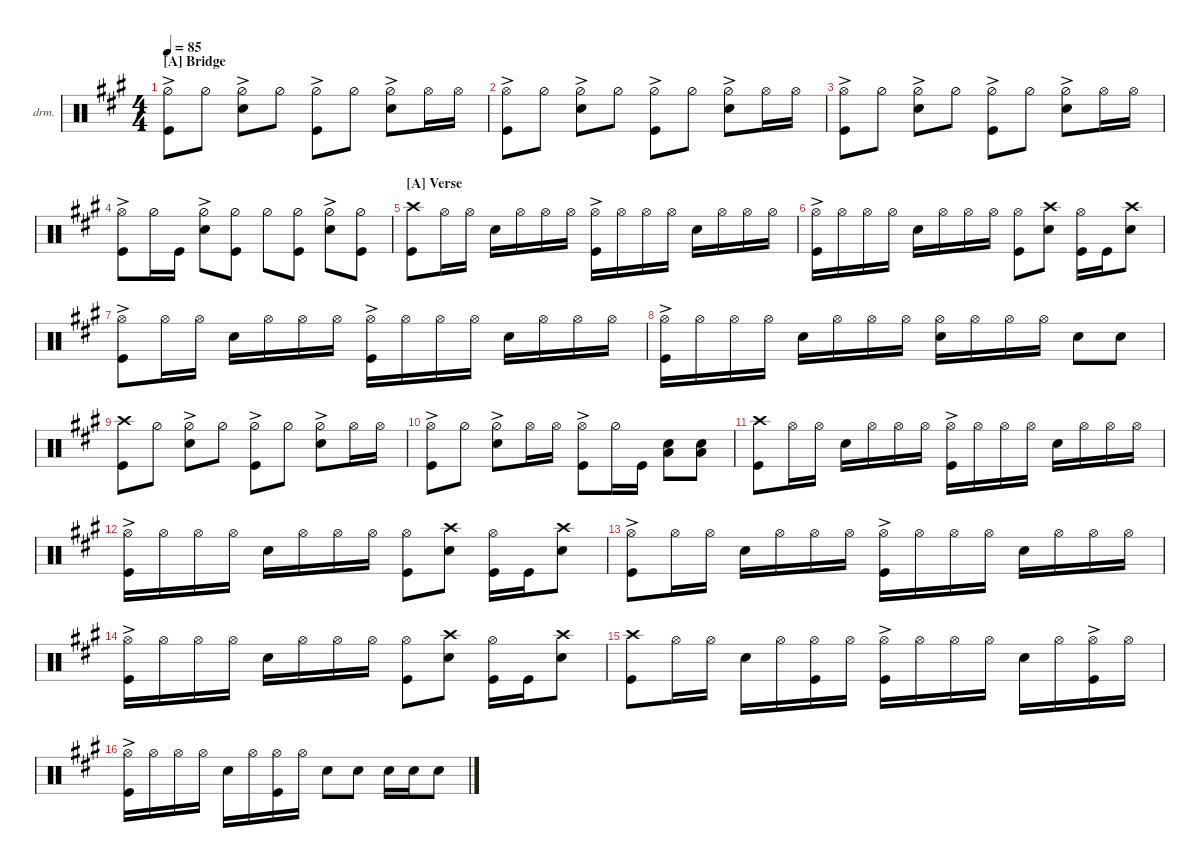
\defaultSystemsLayout 4
\hideDynamics
\bracketExtendMode nobrackets
\firstSystemTrackNameOrientation horizontal
\otherSystemsTrackNameOrientation horizontal
\track ("Drums" "drm.") {instrument percussion}
\staff {score}
\articulation defaults
\ts (4 4)
\section ("A" "Bridge")
\tempo 85
\clef neutral
\ks a
("Kick (hit)"{acc forcenatural} "Hi-Hat (half)"{ac acc forcenatural}).8{dy mf beam Down} "Hi-Hat (half)"{acc forcenatural}.8{beam Down} ("Snare (hit) 2"{acc forcenatural} "Hi-Hat (half)"{ac acc forcenatural}).8{beam Down} "Hi-Hat (half)"{acc forcenatural}.8{beam Down} ("Hi-Hat (half)"{ac acc forcenatural} "Kick (hit)"{acc forcenatural}).8{beam Down} "Hi-Hat (half)"{acc forcenatural}.8{beam Down} ("Snare (hit) 2"{acc forcenatural} "Hi-Hat (half)"{ac acc forcenatural}).8{beam Down} "Hi-Hat (open)"{acc forcenatural}.16{beam Down} "Hi-Hat (open)"{acc forcenatural}.16{beam Down} |
("Kick (hit)"{acc forcenatural} "Hi-Hat (open)"{ac acc forcenatural}).8{beam Down} "Hi-Hat (half)"{acc forcenatural}.8{beam Down} ("Snare (hit) 2"{acc forcenatural} "Hi-Hat (half)"{ac acc forcenatural}).8{beam Down} "Hi-Hat (half)"{acc forcenatural}.8{beam Down} ("Hi-Hat (half)"{ac acc forcenatural} "Kick (hit)"{acc forcenatural}).8{beam Down} "Hi-Hat (half)"{acc forcenatural}.8{beam Down} ("Snare (hit) 2"{acc forcenatural} "Hi-Hat (half)"{ac acc forcenatural}).8{beam Down} "Hi-Hat (open)"{acc forcenatural}.16{beam Down} "Hi-Hat (open)"{acc forcenatural}.16{beam Down} |
("Kick (hit)"{acc forcenatural} "Hi-Hat (open)"{ac acc forcenatural}).8{beam Down} "Hi-Hat (half)"{acc forcenatural}.8{beam Down} ("Snare (hit) 2"{acc forcenatural} "Hi-Hat (half)"{ac acc forcenatural}).8{beam Down} "Hi-Hat (half)"{acc forcenatural}.8{beam Down} ("Hi-Hat (half)"{ac acc forcenatural} "Kick (hit)"{acc forcenatural}).8{beam Down} "Hi-Hat (half)"{acc forcenatural}.8{beam Down} ("Snare (hit) 2"{acc forcenatural} "Hi-Hat (half)"{ac acc forcenatural}).8{beam Down} "Hi-Hat (open)"{acc forcenatural}.16{beam Down} "Hi-Hat (open)"{acc forcenatural}.16{beam Down} |
("Kick (hit)"{acc forcenatural} "Hi-Hat (open)"{ac acc forcenatural}).8{beam Down} "Hi-Hat (half)"{acc forcenatural}.16{beam Down} "Kick (hit)"{acc forcenatural}.16{beam Down} ("Hi-Hat (half)"{ac acc forcenatural} "Snare (hit) 2"{acc forcenatural}).8{beam Down} ("Kick (hit)"{acc forcenatural} "Hi-Hat (half)"{acc forcenatural}).8{beam Down} "Hi-Hat (half)"{acc forcenatural}.8{beam Down} ("Kick (hit)"{acc forcenatural} "Hi-Hat (half)"{acc forcenatural}).8{beam Down} ("Snare (hit) 2"{acc forcenatural} "Hi-Hat (half)"{ac acc forcenatural}).8{beam Down} ("Hi-Hat (half)"{acc forcenatural} "Kick (hit)"{acc forcenatural}).8{beam Down} |
\section ("A" "Verse")
("Kick (hit)"{acc forcenatural} "Crash high (hit)"{acc forcenatural}).8{beam Down} "Hi-Hat (open)"{acc forcenatural}.16{beam Down} "Hi-Hat (open)"{acc forcenatural}.16{beam Down} "Snare (hit) 2"{acc forcenatural}.16{beam Down} "Hi-Hat (open)"{acc forcenatural}.16{beam Down} "Hi-Hat (open)"{acc forcenatural}.16{beam Down} "Hi-Hat (open)"{acc forcenatural}.16{beam Down} ("Hi-Hat (open)"{ac acc forcenatural} "Kick (hit)"{acc forcenatural}).16{beam Down} "Hi-Hat (open)"{acc forcenatural}.16{beam Down} "Hi-Hat (open)"{acc forcenatural}.16{beam Down} "Hi-Hat (open)"{acc forcenatural}.16{beam Down} "Snare (hit) 2"{acc forcenatural}.16{beam Down} "Hi-Hat (open)"{acc forcenatural}.16{beam Down} "Hi-Hat (open)"{acc forcenatural}.16{beam Down} "Hi-Hat (open)"{acc forcenatural}.16{beam Down} |
("Kick (hit)"{acc forcenatural} "Hi-Hat (open)"{ac acc forcenatural}).16{beam Down} "Hi-Hat (open)"{acc forcenatural}.16{beam Down} "Hi-Hat (open)"{acc forcenatural}.16{beam Down} "Hi-Hat (open)"{acc forcenatural}.16{beam Down} "Snare (hit) 2"{acc forcenatural}.16{beam Down} "Hi-Hat (open)"{acc forcenatural}.16{beam Down} "Hi-Hat (open)"{acc forcenatural}.16{beam Down} "Hi-Hat (open)"{acc forcenatural}.16{beam Down} ("Hi-Hat (open)"{acc forcenatural} "Kick (hit)"{acc forcenatural}).8{beam Down} ("Snare (hit) 2"{acc forcenatural} "Crash high (hit)"{acc forcenatural}).8{beam Down} ("Kick (hit)"{acc forcenatural} "Hi-Hat (open)"{acc forcenatural}).16{beam Down} "Kick (hit)"{acc forcenatural}.16{beam Down} ("Snare (hit) 2"{acc forcenatural} "Crash high (hit)"{acc forcenatural}).8{beam Down} |
("Kick (hit)"{acc forcenatural} "Hi-Hat (open)"{ac acc forcenatural}).8{beam Down} "Hi-Hat (open)"{acc forcenatural}.16{beam Down} "Hi-Hat (open)"{acc forcenatural}.16{beam Down} "Snare (hit) 2"{acc forcenatural}.16{beam Down} "Hi-Hat (open)"{acc forcenatural}.16{beam Down} "Hi-Hat (open)"{acc forcenatural}.16{beam Down} "Hi-Hat (open)"{acc forcenatural}.16{beam Down} ("Hi-Hat (open)"{ac acc forcenatural} "Kick (hit)"{acc forcenatural}).16{beam Down} "Hi-Hat (open)"{acc forcenatural}.16{beam Down} "Hi-Hat (open)"{acc forcenatural}.16{beam Down} "Hi-Hat (open)"{acc forcenatural}.16{beam Down} "Snare (hit) 2"{acc forcenatural}.16{beam Down} "Hi-Hat (open)"{acc forcenatural}.16{beam Down} "Hi-Hat (open)"{acc forcenatural}.16{beam Down} "Hi-Hat (open)"{acc forcenatural}.16{beam Down} |
("Kick (hit)"{acc forcenatural} "Hi-Hat (open)"{ac acc forcenatural}).16{beam Down} "Hi-Hat (open)"{acc forcenatural}.16{beam Down} "Hi-Hat (open)"{acc forcenatural}.16{beam Down} "Hi-Hat (open)"{acc forcenatural}.16{beam Down} "Snare (hit) 2"{acc forcenatural}.16{beam Down} "Hi-Hat (open)"{acc forcenatural}.16{beam Down} "Hi-Hat (open)"{acc forcenatural}.16{beam Down} "Hi-Hat (open)"{acc forcenatural}.16{beam Down} ("Hi-Hat (open)"{acc forcenatural} "Snare (hit) 2"{acc forcenatural}).16{beam Down} "Hi-Hat (open)"{acc forcenatural}.16{beam Down} "Hi-Hat (open)"{acc forcenatural}.16{beam Down} "Hi-Hat (open)"{acc forcenatural}.16{beam Down} "Snare (hit) 2"{acc forcenatural}.8{beam Down} "Snare (hit) 2"{acc forcenatural}.8{beam Down} |
("Kick (hit)"{acc forcenatural} "Crash high (hit)"{acc forcenatural}).8{beam Down} "Hi-Hat (half)"{acc forcenatural}.8{beam Down} ("Snare (hit) 2"{acc forcenatural} "Hi-Hat (half)"{ac acc forcenatural}).8{beam Down} "Hi-Hat (half)"{acc forcenatural}.8{beam Down} ("Hi-Hat (half)"{ac acc forcenatural} "Kick (hit)"{acc forcenatural}).8{beam Down} "Hi-Hat (half)"{acc forcenatural}.8{beam Down} ("Snare (hit) 2"{acc forcenatural} "Hi-Hat (half)"{ac acc forcenatural}).8{beam Down} "Hi-Hat (open)"{acc forcenatural}.16{beam Down} "Hi-Hat (open)"{acc forcenatural}.16{beam Down} |
("Kick (hit)"{acc forcenatural} "Hi-Hat (open)"{ac acc forcenatural}).8{beam Down} "Hi-Hat (half)"{acc forcenatural}.8{beam Down} ("Snare (hit) 2"{acc forcenatural} "Hi-Hat (half)"{ac acc forcenatural}).8{beam Down} "Hi-Hat (open)"{acc forcenatural}.16{beam Down} "Hi-Hat (open)"{acc forcenatural}.16{beam Down} ("Hi-Hat (open)"{ac acc forcenatural} "Kick (hit)"{acc forcenatural}).8{beam Down} "Hi-Hat (half)"{acc forcenatural}.16{beam Down} "Kick (hit)"{acc forcenatural}.16{beam Down} ("Snare (hit) 2"{acc forcenatural} "Low Tom (hit)"{acc forcenatural}).8{beam Down} ("Snare (hit) 2"{acc forcenatural} "Low Tom (hit)"{acc forcenatural}).8{beam Down} |
("Kick (hit)"{acc forcenatural} "Crash high (hit)"{acc forcenatural}).8{beam Down} "Hi-Hat (open)"{acc forcenatural}.16{beam Down} "Hi-Hat (open)"{acc forcenatural}.16{beam Down} "Snare (hit) 2"{acc forcenatural}.16{beam Down} "Hi-Hat (open)"{acc forcenatural}.16{beam Down} "Hi-Hat (open)"{acc forcenatural}.16{beam Down} "Hi-Hat (open)"{acc forcenatural}.16{beam Down} ("Hi-Hat (open)"{ac acc forcenatural} "Kick (hit)"{acc forcenatural}).16{beam Down} "Hi-Hat (open)"{acc forcenatural}.16{beam Down} "Hi-Hat (open)"{acc forcenatural}.16{beam Down} "Hi-Hat (open)"{acc forcenatural}.16{beam Down} "Snare (hit) 2"{acc forcenatural}.16{beam Down} "Hi-Hat (open)"{acc forcenatural}.16{beam Down} "Hi-Hat (open)"{acc forcenatural}.16{beam Down} "Hi-Hat (open)"{acc forcenatural}.16{beam Down} |
("Kick (hit)"{acc forcenatural} "Hi-Hat (open)"{ac acc forcenatural}).16{beam Down} "Hi-Hat (open)"{acc forcenatural}.16{beam Down} "Hi-Hat (open)"{acc forcenatural}.16{beam Down} "Hi-Hat (open)"{acc forcenatural}.16{beam Down} "Snare (hit) 2"{acc forcenatural}.16{beam Down} "Hi-Hat (open)"{acc forcenatural}.16{beam Down} "Hi-Hat (open)"{acc forcenatural}.16{beam Down} "Hi-Hat (open)"{acc forcenatural}.16{beam Down} ("Hi-Hat (open)"{acc forcenatural} "Kick (hit)"{acc forcenatural}).8{beam Down} ("Snare (hit) 2"{acc forcenatural} "Crash high (hit)"{acc forcenatural}).8{beam Down} ("Kick (hit)"{acc forcenatural} "Hi-Hat (open)"{acc forcenatural}).16{beam Down} "Kick (hit)"{acc forcenatural}.16{beam Down} ("Snare (hit) 2"{acc forcenatural} "Crash high (hit)"{acc forcenatural}).8{beam Down} |
("Kick (hit)"{acc forcenatural} "Hi-Hat (open)"{ac acc forcenatural}).8{beam Down} "Hi-Hat (open)"{acc forcenatural}.16{beam Down} "Hi-Hat (open)"{acc forcenatural}.16{beam Down} "Snare (hit) 2"{acc forcenatural}.16{beam Down} "Hi-Hat (open)"{acc forcenatural}.16{beam Down} "Hi-Hat (open)"{acc forcenatural}.16{beam Down} "Hi-Hat (open)"{acc forcenatural}.16{beam Down} ("Hi-Hat (open)"{ac acc forcenatural} "Kick (hit)"{acc forcenatural}).16{beam Down} "Hi-Hat (open)"{acc forcenatural}.16{beam Down} "Hi-Hat (open)"{acc forcenatural}.16{beam Down} "Hi-Hat (open)"{acc forcenatural}.16{beam Down} "Snare (hit) 2"{acc forcenatural}.16{beam Down} "Hi-Hat (open)"{acc forcenatural}.16{beam Down} "Hi-Hat (open)"{acc forcenatural}.16{beam Down} "Hi-Hat (open)"{acc forcenatural}.16{beam Down} |
("Kick (hit)"{acc forcenatural} "Hi-Hat (open)"{ac acc forcenatural}).16{beam Down} "Hi-Hat (open)"{acc forcenatural}.16{beam Down} "Hi-Hat (open)"{acc forcenatural}.16{beam Down} "Hi-Hat (open)"{acc forcenatural}.16{beam Down} "Snare (hit) 2"{acc forcenatural}.16{beam Down} "Hi-Hat (open)"{acc forcenatural}.16{beam Down} "Hi-Hat (open)"{acc forcenatural}.16{beam Down} "Hi-Hat (open)"{acc forcenatural}.16{beam Down} ("Hi-Hat (open)"{acc forcenatural} "Kick (hit)"{acc forcenatural}).8{beam Down} ("Snare (hit) 2"{acc forcenatural} "Crash high (hit)"{acc forcenatural}).8{beam Down} ("Kick (hit)"{acc forcenatural} "Hi-Hat (open)"{acc forcenatural}).16{beam Down} "Kick (hit)"{acc forcenatural}.16{beam Down} ("Snare (hit) 2"{acc forcenatural} "Crash high (hit)"{acc forcenatural}).8{beam Down} |
("Kick (hit)"{acc forcenatural} "Crash high (hit)"{acc forcenatural}).8{beam Down} "Hi-Hat (open)"{acc forcenatural}.16{beam Down} "Hi-Hat (open)"{acc forcenatural}.16{beam Down} "Snare (hit) 2"{acc forcenatural}.16{beam Down} "Hi-Hat (open)"{acc forcenatural}.16{beam Down} ("Kick (hit)"{acc forcenatural} "Hi-Hat (open)"{acc forcenatural}).16{beam Down} "Hi-Hat (open)"{acc forcenatural}.16{beam Down} ("Kick (hit)"{acc forcenatural} "Hi-Hat (open)"{ac acc forcenatural}).16{beam Down} "Hi-Hat (open)"{acc forcenatural}.16{beam Down} "Hi-Hat (open)"{acc forcenatural}.16{beam Down} "Hi-Hat (open)"{acc forcenatural}.16{beam Down} "Snare (hit) 2"{acc forcenatural}.16{beam Down} "Hi-Hat (open)"{acc forcenatural}.16{beam Down} ("Hi-Hat (open)"{ac acc forcenatural} "Kick (hit)"{acc forcenatural}).16{beam Down} "Hi-Hat (open)"{acc forcenatural}.16{beam Down} |
("Kick (hit)"{acc forcenatural} "Hi-Hat (open)"{ac acc forcenatural}).16{beam Down} "Hi-Hat (open)"{acc forcenatural}.16{beam Down} "Hi-Hat (open)"{acc forcenatural}.16{beam Down} "Hi-Hat (open)"{acc forcenatural}.16{beam Down} "Snare (hit) 2"{acc forcenatural}.16{beam Down} "Hi-Hat (open)"{acc forcenatural}.16{beam Down} ("Kick (hit)"{acc forcenatural} "Hi-Hat (open)"{acc forcenatural}).16{beam Down} "Hi-Hat (open)"{acc forcenatural}.16{beam Down} "Snare (hit) 2"{acc forcenatural}.8{beam Down} "Snare (hit) 2"{acc forcenatural}.8{beam Down} "Snare (hit) 2"{acc forcenatural}.16{beam Down} "Snare (hit) 2"{acc forcenatural}.16{beam Down} "Snare (hit) 2"{acc forcenatural}.8{beam Down}
